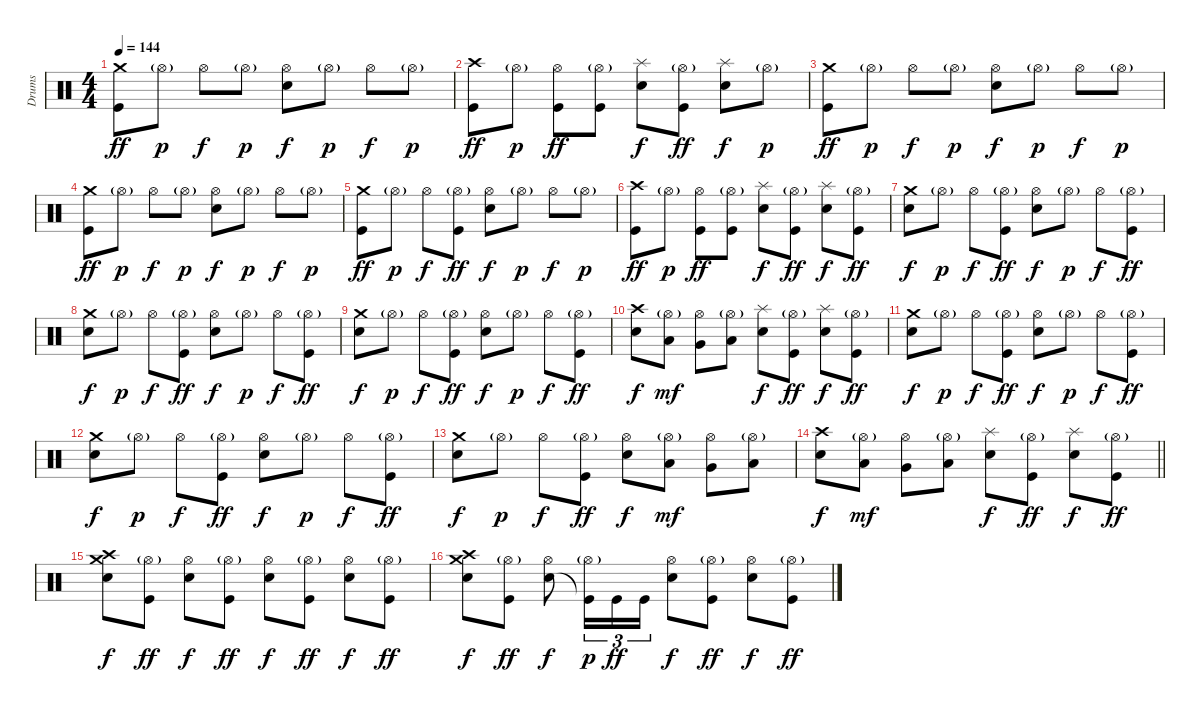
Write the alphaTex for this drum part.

\track ("Drums" "Drums") {instrument percussion}
\staff {score}
\articulation defaults
\ts (4 4)
\tempo 144
\clef neutral
\ks c
("Crash medium (hit)" "Kick (hit)").8{dy ff} "Hi-Hat (open)"{g}.8{dy p} "Hi-Hat (open)".8{dy f} "Hi-Hat (open)"{g}.8{dy p} ("Hi-Hat (open)" "Snare (hit) 2").8{dy f} "Hi-Hat (open)"{g}.8{dy p} "Hi-Hat (open)".8{dy f} "Hi-Hat (open)"{g}.8{dy p} |
("Crash high (hit)" "Kick (hit)").8{dy ff} "Hi-Hat (open)"{g}.8{dy p} ("Hi-Hat (open)" "Kick (hit)").8{dy ff} ("Hi-Hat (open)"{g} "Kick (hit)").8 ("Splash (hit)" "Snare (hit) 2").8{dy f} ("Hi-Hat (open)"{g} "Kick (hit)").8{dy ff} ("Splash (hit)" "Snare (hit) 2").8{dy f} "Hi-Hat (open)"{g}.8{dy p} |
("Crash medium (hit)" "Kick (hit)").8{dy ff} "Hi-Hat (open)"{g}.8{dy p} "Hi-Hat (open)".8{dy f} "Hi-Hat (open)"{g}.8{dy p} ("Hi-Hat (open)" "Snare (hit) 2").8{dy f} "Hi-Hat (open)"{g}.8{dy p} "Hi-Hat (open)".8{dy f} "Hi-Hat (open)"{g}.8{dy p} |
("Crash medium (hit)" "Kick (hit)").8{dy ff} "Hi-Hat (open)"{g}.8{dy p} "Hi-Hat (open)".8{dy f} "Hi-Hat (open)"{g}.8{dy p} ("Hi-Hat (open)" "Snare (hit) 2").8{dy f} "Hi-Hat (open)"{g}.8{dy p} "Hi-Hat (open)".8{dy f} "Hi-Hat (open)"{g}.8{dy p} |
("Crash medium (hit)" "Kick (hit)").8{dy ff} "Hi-Hat (open)"{g}.8{dy p} "Hi-Hat (open)".8{dy f} ("Hi-Hat (open)"{g} "Kick (hit)").8{dy ff} ("Hi-Hat (open)" "Snare (hit) 2").8{dy f} "Hi-Hat (open)"{g}.8{dy p} "Hi-Hat (open)".8{dy f} "Hi-Hat (open)"{g}.8{dy p} |
("Crash high (hit)" "Kick (hit)").8{dy ff} "Hi-Hat (open)"{g}.8{dy p} ("Hi-Hat (open)" "Kick (hit)").8{dy ff} ("Hi-Hat (open)"{g} "Kick (hit)").8 ("Splash (hit)" "Snare (hit) 2").8{dy f} ("Hi-Hat (open)"{g} "Kick (hit)").8{dy ff} ("Splash (hit)" "Snare (hit) 2").8{dy f} ("Hi-Hat (open)"{g} "Kick (hit)").8{dy ff} |
("Crash medium (hit)" "Snare (hit) 2").8{dy f} "Hi-Hat (open)"{g}.8{dy p} "Hi-Hat (open)".8{dy f} ("Hi-Hat (open)"{g} "Kick (hit)").8{dy ff} ("Hi-Hat (open)" "Snare (hit) 2").8{dy f} "Hi-Hat (open)"{g}.8{dy p} "Hi-Hat (open)".8{dy f} ("Hi-Hat (open)"{g} "Kick (hit)").8{dy ff} |
("Crash medium (hit)" "Snare (hit) 2").8{dy f} "Hi-Hat (open)"{g}.8{dy p} "Hi-Hat (open)".8{dy f} ("Hi-Hat (open)"{g} "Kick (hit)").8{dy ff} ("Hi-Hat (open)" "Snare (hit) 2").8{dy f} "Hi-Hat (open)"{g}.8{dy p} "Hi-Hat (open)".8{dy f} ("Hi-Hat (open)"{g} "Kick (hit)").8{dy ff} |
("Crash medium (hit)" "Snare (hit) 2").8{dy f} "Hi-Hat (open)"{g}.8{dy p} "Hi-Hat (open)".8{dy f} ("Hi-Hat (open)"{g} "Kick (hit)").8{dy ff} ("Hi-Hat (open)" "Snare (hit) 2").8{dy f} "Hi-Hat (open)"{g}.8{dy p} "Hi-Hat (open)".8{dy f} ("Hi-Hat (open)"{g} "Kick (hit)").8{dy ff} |
("Crash high (hit)" "Snare (hit) 2").8{dy f} ("Hi-Hat (open)"{g} "Low Tom (hit)").8{dy mf} ("Hi-Hat (open)" "Very Low Tom (hit)").8 ("Hi-Hat (open)"{g} "Low Floor Tom (hit)").8 ("Splash (hit)" "Snare (hit) 2").8{dy f} ("Hi-Hat (open)"{g} "Kick (hit)").8{dy ff} ("Splash (hit)" "Snare (hit) 2").8{dy f} ("Hi-Hat (open)"{g} "Kick (hit)").8{dy ff} |
("Crash medium (hit)" "Snare (hit) 2").8{dy f} "Hi-Hat (open)"{g}.8{dy p} "Hi-Hat (open)".8{dy f} ("Hi-Hat (open)"{g} "Kick (hit)").8{dy ff} ("Hi-Hat (open)" "Snare (hit) 2").8{dy f} "Hi-Hat (open)"{g}.8{dy p} "Hi-Hat (open)".8{dy f} ("Hi-Hat (open)"{g} "Kick (hit)").8{dy ff} |
("Crash medium (hit)" "Snare (hit) 2").8{dy f} "Hi-Hat (open)"{g}.8{dy p} "Hi-Hat (open)".8{dy f} ("Hi-Hat (open)"{g} "Kick (hit)").8{dy ff} ("Hi-Hat (open)" "Snare (hit) 2").8{dy f} "Hi-Hat (open)"{g}.8{dy p} "Hi-Hat (open)".8{dy f} ("Hi-Hat (open)"{g} "Kick (hit)").8{dy ff} |
("Crash medium (hit)" "Snare (hit) 2").8{dy f} "Hi-Hat (open)"{g}.8{dy p} "Hi-Hat (open)".8{dy f} ("Hi-Hat (open)"{g} "Kick (hit)").8{dy ff} ("Hi-Hat (open)" "Snare (hit) 2").8{dy f} ("Hi-Hat (open)"{g} "Low Tom (hit)").8{dy mf} ("Hi-Hat (open)" "Very Low Tom (hit)").8 ("Hi-Hat (open)"{g} "Low Floor Tom (hit)").8 |
\barLineRight lightlight
("Crash high (hit)" "Snare (hit) 2").8{dy f} ("Hi-Hat (open)"{g} "Low Tom (hit)").8{dy mf} ("Hi-Hat (open)" "Very Low Tom (hit)").8 ("Hi-Hat (open)"{g} "Low Floor Tom (hit)").8 ("Splash (hit)" "Snare (hit) 2").8{dy f} ("Hi-Hat (open)"{g} "Kick (hit)").8{dy ff} ("Splash (hit)" "Snare (hit) 2").8{dy f} ("Hi-Hat (open)"{g} "Kick (hit)").8{dy ff} |
("Crash medium (hit)" "Crash high (hit)" "Snare (hit) 2").8{dy f} ("Hi-Hat (open)"{g} "Kick (hit)").8{dy ff} ("Hi-Hat (open)" "Snare (hit) 2").8{dy f} ("Hi-Hat (open)"{g} "Kick (hit)").8{dy ff} ("Hi-Hat (open)" "Snare (hit) 2").8{dy f} ("Hi-Hat (open)"{g} "Kick (hit)").8{dy ff} ("Hi-Hat (open)" "Snare (hit) 2").8{dy f} ("Hi-Hat (open)"{g} "Kick (hit)").8{dy ff} |
("Crash medium (hit)" "Crash high (hit)" "Snare (hit) 2").8{dy f} ("Hi-Hat (open)"{g} "Kick (hit)").8{dy ff} ("Hi-Hat (open)" "Snare (hit) 2").8{dy f} ("Hi-Hat (open)"{g} "Kick (hit)"{t}).16{tu (3 2) dy p} "Kick (hit)".16{tu (3 2) dy ff} "Kick (hit)".16{tu (3 2)} ("Hi-Hat (open)" "Snare (hit) 2").8{dy f} ("Hi-Hat (open)"{g} "Kick (hit)").8{dy ff} ("Hi-Hat (open)" "Snare (hit) 2").8{dy f} ("Hi-Hat (open)"{g} "Kick (hit)").8{dy ff}
